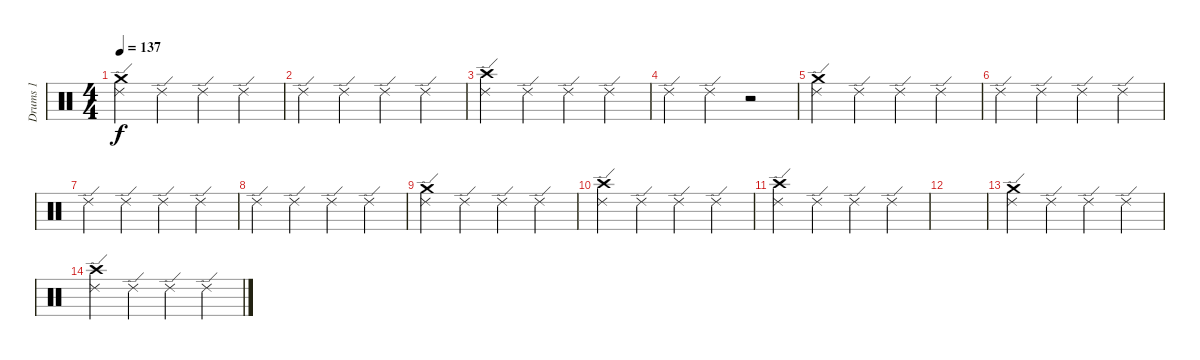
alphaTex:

\track ("Drums 1" "Drums 1") {instrument percussion}
\staff {score}
\articulation defaults
\ts (4 4)
\tempo 137
\clef neutral
\ks c
("Crash medium (hit)" "Ride (edge) 2").4{dy f} "Ride (edge) 2".4 "Ride (edge) 2".4 "Ride (edge) 2".4 |
"Ride (edge) 2".4 "Ride (edge) 2".4 "Ride (edge) 2".4 "Ride (edge) 2".4 |
("Crash high (hit)" "Ride (edge) 2").4 "Ride (edge) 2".4 "Ride (edge) 2".4 "Ride (edge) 2".4 |
"Ride (edge) 2".4 "Ride (edge) 2".4 r.2 |
("Crash medium (hit)" "Ride (edge) 2").4 "Ride (edge) 2".4 "Ride (edge) 2".4 "Ride (edge) 2".4 |
"Ride (edge) 2".4 "Ride (edge) 2".4 "Ride (edge) 2".4 "Ride (edge) 2".4 |
"Ride (edge) 2".4 "Ride (edge) 2".4 "Ride (edge) 2".4 "Ride (edge) 2".4 |
"Ride (edge) 2".4 "Ride (edge) 2".4 "Ride (edge) 2".4 "Ride (edge) 2".4 |
("Crash medium (hit)" "Ride (edge) 2").4 "Ride (edge) 2".4 "Ride (edge) 2".4 "Ride (edge) 2".4 |
("Crash high (hit)" "Ride (edge) 2").4 "Ride (edge) 2".4 "Ride (edge) 2".4 "Ride (edge) 2".4 |
("Crash high (hit)" "Ride (edge) 2").4 "Ride (edge) 2".4 "Ride (edge) 2".4 "Ride (edge) 2".4 |
|
("Crash medium (hit)" "Ride (edge) 2").4 "Ride (edge) 2".4 "Ride (edge) 2".4 "Ride (edge) 2".4 |
("Crash high (hit)" "Ride (edge) 2").4 "Ride (edge) 2".4 "Ride (edge) 2".4 "Ride (edge) 2".4
